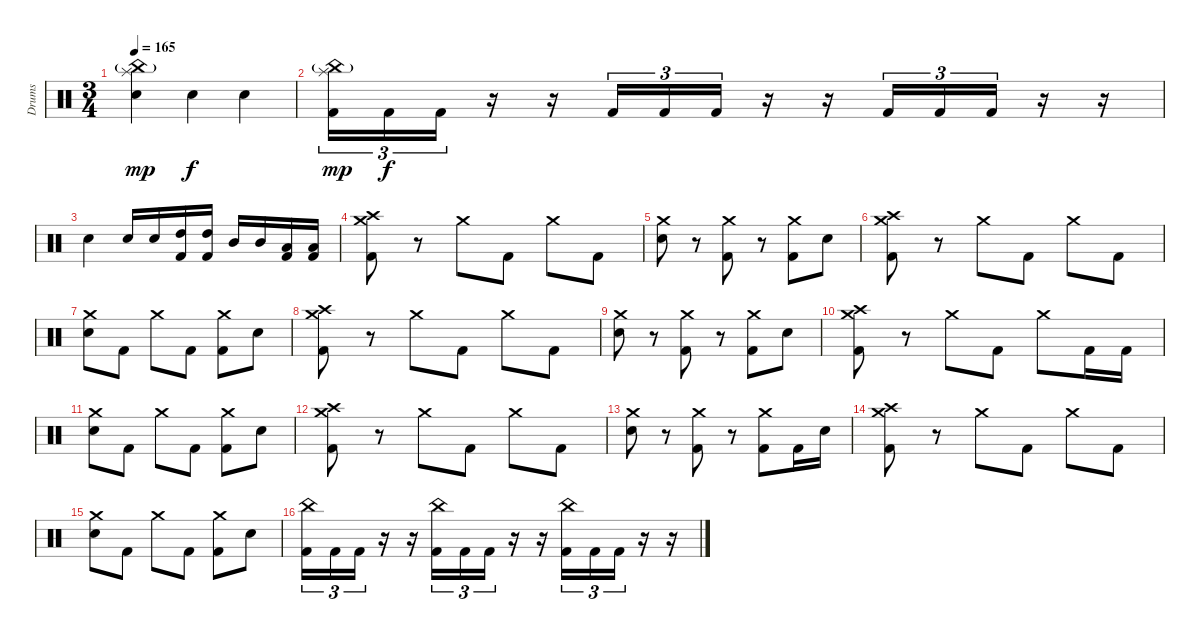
\track ("Drums" "Drums") {instrument percussion}
\staff {score}
\articulation defaults
\ts (3 4)
\tempo 165
\clef neutral
\ks c
("China (hit)"{g} "Splash (hit)" "Electric Snare (hit)").4{dy mp} "Electric Snare (hit)".4{dy f} "Electric Snare (hit)".4 |
("China (hit)"{g} "Splash (hit)" "Kick (hit) 2").16{tu (3 2) dy mp} "Kick (hit) 2".16{tu (3 2) dy f} "Kick (hit) 2".16{tu (3 2)} r.16 r.16 "Kick (hit) 2".16{tu (3 2)} "Kick (hit) 2".16{tu (3 2)} "Kick (hit) 2".16{tu (3 2)} r.16 r.16 "Kick (hit) 2".16{tu (3 2)} "Kick (hit) 2".16{tu (3 2)} "Kick (hit) 2".16{tu (3 2)} r.16 r.16 |
"Electric Snare (hit)".4 "Electric Snare (hit)".16 "Electric Snare (hit)".16 ("High Tom (hit)" "Kick (hit) 2").16 ("High Tom (hit)" "Kick (hit) 2").16 "Mid Tom (hit)".16 "Mid Tom (hit)".16 ("Low Tom (hit)" "Kick (hit) 2").16 ("Low Tom (hit)" "Kick (hit) 2").16 |
("Crash high (hit)" "Crash medium (hit)" "Kick (hit) 2").8 r.8 "Crash medium (hit)".8 "Kick (hit) 2".8 "Crash medium (hit)".8 "Kick (hit) 2".8 |
("Crash medium (hit)" "Electric Snare (hit)").8 r.8 ("Crash medium (hit)" "Kick (hit) 2").8 r.8 ("Crash medium (hit)" "Kick (hit) 2").8 "Electric Snare (hit)".8 |
("Crash high (hit)" "Crash medium (hit)" "Kick (hit) 2").8 r.8 "Crash medium (hit)".8 "Kick (hit) 2".8 "Crash medium (hit)".8 "Kick (hit) 2".8 |
("Crash medium (hit)" "Electric Snare (hit)").8 "Kick (hit) 2".8 "Crash medium (hit)".8 "Kick (hit) 2".8 ("Crash medium (hit)" "Kick (hit) 2").8 "Electric Snare (hit)".8 |
("Crash high (hit)" "Crash medium (hit)" "Kick (hit) 2").8 r.8 "Crash medium (hit)".8 "Kick (hit) 2".8 "Crash medium (hit)".8 "Kick (hit) 2".8 |
("Crash medium (hit)" "Electric Snare (hit)").8 r.8 ("Crash medium (hit)" "Kick (hit) 2").8 r.8 ("Crash medium (hit)" "Kick (hit) 2").8 "Electric Snare (hit)".8 |
("Crash high (hit)" "Crash medium (hit)" "Kick (hit) 2").8 r.8 "Crash medium (hit)".8 "Kick (hit) 2".8 "Crash medium (hit)".8 "Kick (hit) 2".16 "Kick (hit) 2".16 |
("Crash medium (hit)" "Electric Snare (hit)").8 "Kick (hit) 2".8 "Crash medium (hit)".8 "Kick (hit) 2".8 ("Crash medium (hit)" "Kick (hit) 2").8 "Electric Snare (hit)".8 |
("Crash high (hit)" "Crash medium (hit)" "Kick (hit) 2").8 r.8 "Crash medium (hit)".8 "Kick (hit) 2".8 "Crash medium (hit)".8 "Kick (hit) 2".8 |
("Crash medium (hit)" "Electric Snare (hit)").8 r.8 ("Crash medium (hit)" "Kick (hit) 2").8 r.8 ("Crash medium (hit)" "Kick (hit) 2").8 "Kick (hit) 2".16 "Electric Snare (hit)".16 |
("Crash high (hit)" "Crash medium (hit)" "Kick (hit) 2").8 r.8 "Crash medium (hit)".8 "Kick (hit) 2".8 "Crash medium (hit)".8 "Kick (hit) 2".8 |
("Crash medium (hit)" "Electric Snare (hit)").8 "Kick (hit) 2".8 "Crash medium (hit)".8 "Kick (hit) 2".8 ("Crash medium (hit)" "Kick (hit) 2").8 "Electric Snare (hit)".8 |
("China (hit)" "Kick (hit) 2").16{tu (3 2)} "Kick (hit) 2".16{tu (3 2)} "Kick (hit) 2".16{tu (3 2)} r.16 r.16 ("China (hit)" "Kick (hit) 2").16{tu (3 2)} "Kick (hit) 2".16{tu (3 2)} "Kick (hit) 2".16{tu (3 2)} r.16 r.16 ("China (hit)" "Kick (hit) 2").16{tu (3 2)} "Kick (hit) 2".16{tu (3 2)} "Kick (hit) 2".16{tu (3 2)} r.16 r.16
